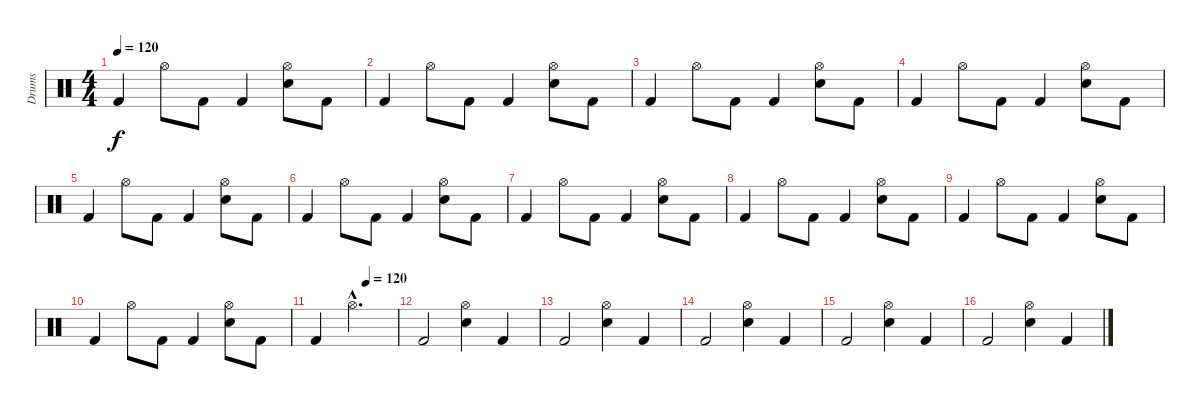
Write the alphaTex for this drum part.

\track ("Drums" "Drums") {instrument percussion}
\staff {score}
\articulation defaults
\ts (4 4)
\tempo 120
\clef neutral
\ks c "Kick (hit) 2".4{dy f} "Hi-Hat (open)".8 "Kick (hit) 2".8 "Kick (hit) 2".4
("Hi-Hat (open)" "Electric Snare (hit)").8 "Kick (hit) 2".8 |
"Kick (hit) 2".4 "Hi-Hat (open)".8 "Kick (hit) 2".8 "Kick (hit) 2".4 ("Hi-Hat (open)" "Electric Snare (hit)").8 "Kick (hit) 2".8 |
"Kick (hit) 2".4 "Hi-Hat (open)".8 "Kick (hit) 2".8 "Kick (hit) 2".4 ("Hi-Hat (open)" "Electric Snare (hit)").8 "Kick (hit) 2".8 |
"Kick (hit) 2".4 "Hi-Hat (open)".8 "Kick (hit) 2".8 "Kick (hit) 2".4 ("Hi-Hat (open)" "Electric Snare (hit)").8 "Kick (hit) 2".8 |
"Kick (hit) 2".4 "Hi-Hat (open)".8 "Kick (hit) 2".8 "Kick (hit) 2".4 ("Hi-Hat (open)" "Electric Snare (hit)").8 "Kick (hit) 2".8 |
"Kick (hit) 2".4 "Hi-Hat (open)".8 "Kick (hit) 2".8 "Kick (hit) 2".4 ("Hi-Hat (open)" "Electric Snare (hit)").8 "Kick (hit) 2".8 |
"Kick (hit) 2".4 "Hi-Hat (open)".8 "Kick (hit) 2".8 "Kick (hit) 2".4 ("Hi-Hat (open)" "Electric Snare (hit)").8 "Kick (hit) 2".8 |
"Kick (hit) 2".4 "Hi-Hat (open)".8 "Kick (hit) 2".8 "Kick (hit) 2".4 ("Hi-Hat (open)" "Electric Snare (hit)").8 "Kick (hit) 2".8 |
"Kick (hit) 2".4 "Hi-Hat (open)".8 "Kick (hit) 2".8 "Kick (hit) 2".4 ("Hi-Hat (open)" "Electric Snare (hit)").8 "Kick (hit) 2".8 |
"Kick (hit) 2".4 "Hi-Hat (open)".8 "Kick (hit) 2".8 "Kick (hit) 2".4 ("Hi-Hat (open)" "Electric Snare (hit)").8 "Kick (hit) 2".8 |
\tempo (120 0.625)
"Kick (hit) 2".4 "Hi-Hat (open)"{hac}.2{d} |
"Kick (hit) 2".2 ("Hi-Hat (open)" "Electric Snare (hit)").4 "Kick (hit) 2".4 |
"Kick (hit) 2".2 ("Hi-Hat (open)" "Electric Snare (hit)").4 "Kick (hit) 2".4 |
"Kick (hit) 2".2 ("Hi-Hat (open)" "Electric Snare (hit)").4 "Kick (hit) 2".4 |
"Kick (hit) 2".2 ("Hi-Hat (open)" "Electric Snare (hit)").4 "Kick (hit) 2".4 |
"Kick (hit) 2".2 ("Hi-Hat (open)" "Electric Snare (hit)").4 "Kick (hit) 2".4
